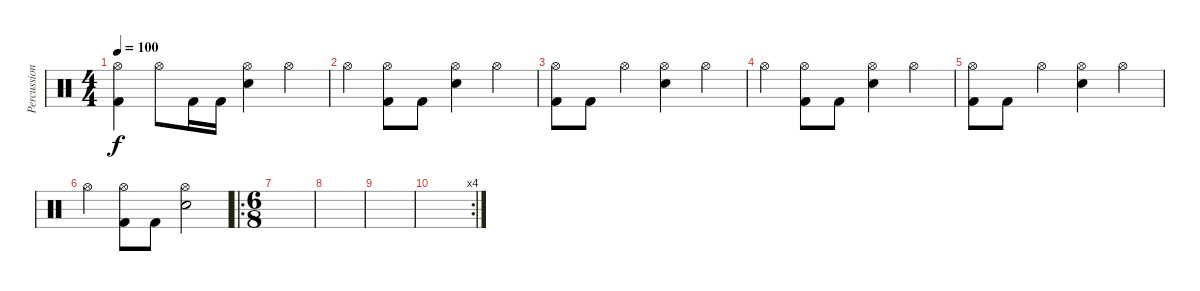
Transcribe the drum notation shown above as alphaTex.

\track ("Percussion" "Percussion") {instrument percussion}
\staff {score}
\articulation defaults
\ts (4 4)
\tempo 100
\clef neutral
\ks c
("Hi-Hat (open)" "Kick (hit) 2").4{dy f} "Hi-Hat (open)".8 "Kick (hit) 2".16 "Kick (hit) 2".16 ("Hi-Hat (open)" "Electric Snare (hit)").4 "Hi-Hat (open)".4 |
"Hi-Hat (open)".4 ("Hi-Hat (open)" "Kick (hit) 2").8 "Kick (hit) 2".8 ("Hi-Hat (open)" "Electric Snare (hit)").4 "Hi-Hat (open)".4 |
("Hi-Hat (open)" "Kick (hit) 2").8 "Kick (hit) 2".8 "Hi-Hat (open)".4 ("Hi-Hat (open)" "Electric Snare (hit)").4 "Hi-Hat (open)".4 |
"Hi-Hat (open)".4 ("Hi-Hat (open)" "Kick (hit) 2").8 "Kick (hit) 2".8 ("Hi-Hat (open)" "Electric Snare (hit)").4 "Hi-Hat (open)".4 |
("Hi-Hat (open)" "Kick (hit) 2").8 "Kick (hit) 2".8 "Hi-Hat (open)".4 ("Hi-Hat (open)" "Electric Snare (hit)").4 "Hi-Hat (open)".4 |
"Hi-Hat (open)".4 ("Hi-Hat (open)" "Kick (hit) 2").8 "Kick (hit) 2".8 ("Hi-Hat (open)" "Electric Snare (hit)").2 |
\ro
\ts (6 8)
|
|
|
\rc 4
